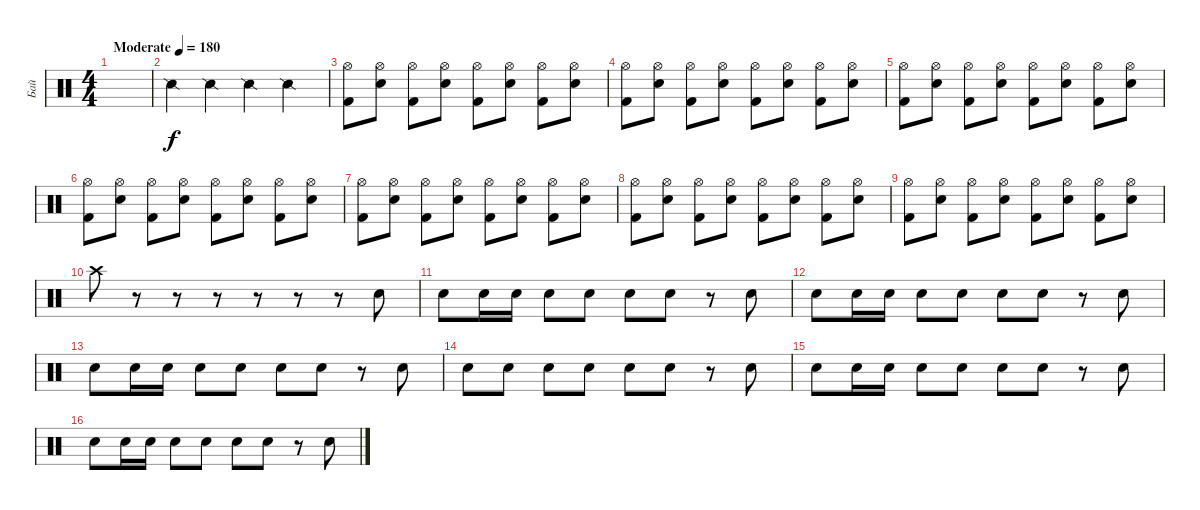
\track ("Бай" "Бай") {instrument percussion}
\staff {score}
\articulation defaults
\ts (4 4)
\tempo (180 "Moderate")
\clef neutral
\ks c
|
"Snare (side stick) 2".4 "Snare (side stick) 2".4 "Snare (side stick) 2".4 "Snare (side stick) 2".4 |
("Hi-Hat (open)" "Kick (hit) 2").8 ("Hi-Hat (open)" "Snare (hit) 2").8 ("Hi-Hat (open)" "Kick (hit) 2").8 ("Hi-Hat (open)" "Snare (hit) 2").8 ("Hi-Hat (open)" "Kick (hit) 2").8 ("Hi-Hat (open)" "Snare (hit) 2").8 ("Hi-Hat (open)" "Kick (hit) 2").8 ("Hi-Hat (open)" "Snare (hit) 2").8 |
("Hi-Hat (open)" "Kick (hit) 2").8 ("Hi-Hat (open)" "Snare (hit) 2").8 ("Hi-Hat (open)" "Kick (hit) 2").8 ("Hi-Hat (open)" "Snare (hit) 2").8 ("Hi-Hat (open)" "Kick (hit) 2").8 ("Hi-Hat (open)" "Snare (hit) 2").8 ("Hi-Hat (open)" "Kick (hit) 2").8 ("Hi-Hat (open)" "Snare (hit) 2").8 |
("Hi-Hat (open)" "Kick (hit) 2").8 ("Hi-Hat (open)" "Snare (hit) 2").8 ("Hi-Hat (open)" "Kick (hit) 2").8 ("Hi-Hat (open)" "Snare (hit) 2").8 ("Hi-Hat (open)" "Kick (hit) 2").8 ("Hi-Hat (open)" "Snare (hit) 2").8 ("Hi-Hat (open)" "Kick (hit) 2").8 ("Hi-Hat (open)" "Snare (hit) 2").8 |
("Hi-Hat (open)" "Kick (hit) 2").8 ("Hi-Hat (open)" "Snare (hit) 2").8 ("Hi-Hat (open)" "Kick (hit) 2").8 ("Hi-Hat (open)" "Snare (hit) 2").8 ("Hi-Hat (open)" "Kick (hit) 2").8 ("Hi-Hat (open)" "Snare (hit) 2").8 ("Hi-Hat (open)" "Kick (hit) 2").8 ("Hi-Hat (open)" "Snare (hit) 2").8 |
("Hi-Hat (open)" "Kick (hit) 2").8 ("Hi-Hat (open)" "Snare (hit) 2").8 ("Hi-Hat (open)" "Kick (hit) 2").8 ("Hi-Hat (open)" "Snare (hit) 2").8 ("Hi-Hat (open)" "Kick (hit) 2").8 ("Hi-Hat (open)" "Snare (hit) 2").8 ("Hi-Hat (open)" "Kick (hit) 2").8 ("Hi-Hat (open)" "Snare (hit) 2").8 |
("Hi-Hat (open)" "Kick (hit) 2").8 ("Hi-Hat (open)" "Snare (hit) 2").8 ("Hi-Hat (open)" "Kick (hit) 2").8 ("Hi-Hat (open)" "Snare (hit) 2").8 ("Hi-Hat (open)" "Kick (hit) 2").8 ("Hi-Hat (open)" "Snare (hit) 2").8 ("Hi-Hat (open)" "Kick (hit) 2").8 ("Hi-Hat (open)" "Snare (hit) 2").8 |
("Hi-Hat (open)" "Kick (hit) 2").8 ("Hi-Hat (open)" "Snare (hit) 2").8 ("Hi-Hat (open)" "Kick (hit) 2").8 ("Hi-Hat (open)" "Snare (hit) 2").8 ("Hi-Hat (open)" "Kick (hit) 2").8 ("Hi-Hat (open)" "Snare (hit) 2").8 ("Hi-Hat (open)" "Kick (hit) 2").8 ("Hi-Hat (open)" "Snare (hit) 2").8 |
"Crash high (hit)".8 r.8 r.8 r.8 r.8 r.8 r.8 "Snare (hit) 2".8 |
"Snare (hit) 2".8 "Snare (hit) 2".16 "Snare (hit) 2".16 "Snare (hit) 2".8 "Snare (hit) 2".8 "Snare (hit) 2".8 "Snare (hit) 2".8 r.8 "Snare (hit) 2".8 |
"Snare (hit) 2".8 "Snare (hit) 2".16 "Snare (hit) 2".16 "Snare (hit) 2".8 "Snare (hit) 2".8 "Snare (hit) 2".8 "Snare (hit) 2".8 r.8 "Snare (hit) 2".8 |
"Snare (hit) 2".8 "Snare (hit) 2".16 "Snare (hit) 2".16 "Snare (hit) 2".8 "Snare (hit) 2".8 "Snare (hit) 2".8 "Snare (hit) 2".8 r.8 "Snare (hit) 2".8 |
"Snare (hit) 2".8 "Snare (hit) 2".8 "Snare (hit) 2".8 "Snare (hit) 2".8 "Snare (hit) 2".8 "Snare (hit) 2".8 r.8 "Snare (hit) 2".8 |
"Snare (hit) 2".8 "Snare (hit) 2".16 "Snare (hit) 2".16 "Snare (hit) 2".8 "Snare (hit) 2".8 "Snare (hit) 2".8 "Snare (hit) 2".8 r.8 "Snare (hit) 2".8 |
"Snare (hit) 2".8 "Snare (hit) 2".16 "Snare (hit) 2".16 "Snare (hit) 2".8 "Snare (hit) 2".8 "Snare (hit) 2".8 "Snare (hit) 2".8 r.8 "Snare (hit) 2".8
